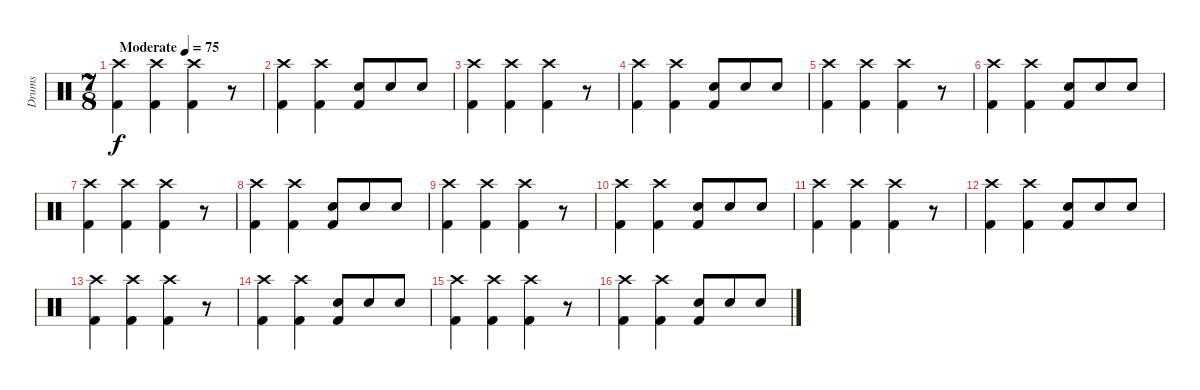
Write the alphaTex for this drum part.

\track ("Drums" "Drums") {instrument percussion}
\staff {score}
\articulation defaults
\ts (7 8)
\tempo (75 "Moderate")
\tempo 195
\tempo (75 "Moderate")
\clef neutral
\ks c
("Crash high (hit)" "Kick (hit) 2").4{dy f} ("Crash high (hit)" "Kick (hit) 2").4 ("Crash high (hit)" "Kick (hit) 2").4 r.8 |
("Crash high (hit)" "Kick (hit) 2").4 ("Crash high (hit)" "Kick (hit) 2").4 ("Electric Snare (hit)" "Kick (hit) 2").8 "Electric Snare (hit)".8 "Electric Snare (hit)".8 |
("Crash high (hit)" "Kick (hit) 2").4 ("Crash high (hit)" "Kick (hit) 2").4 ("Crash high (hit)" "Kick (hit) 2").4 r.8 |
("Crash high (hit)" "Kick (hit) 2").4 ("Crash high (hit)" "Kick (hit) 2").4 ("Electric Snare (hit)" "Kick (hit) 2").8 "Electric Snare (hit)".8 "Electric Snare (hit)".8 |
("Crash high (hit)" "Kick (hit) 2").4 ("Crash high (hit)" "Kick (hit) 2").4 ("Crash high (hit)" "Kick (hit) 2").4 r.8 |
("Crash high (hit)" "Kick (hit) 2").4 ("Crash high (hit)" "Kick (hit) 2").4 ("Electric Snare (hit)" "Kick (hit) 2").8 "Electric Snare (hit)".8 "Electric Snare (hit)".8 |
("Crash high (hit)" "Kick (hit) 2").4 ("Crash high (hit)" "Kick (hit) 2").4 ("Crash high (hit)" "Kick (hit) 2").4 r.8 |
("Crash high (hit)" "Kick (hit) 2").4 ("Crash high (hit)" "Kick (hit) 2").4 ("Electric Snare (hit)" "Kick (hit) 2").8 "Electric Snare (hit)".8 "Electric Snare (hit)".8 |
("Crash high (hit)" "Kick (hit) 2").4 ("Crash high (hit)" "Kick (hit) 2").4 ("Crash high (hit)" "Kick (hit) 2").4 r.8 |
("Crash high (hit)" "Kick (hit) 2").4 ("Crash high (hit)" "Kick (hit) 2").4 ("Electric Snare (hit)" "Kick (hit) 2").8 "Electric Snare (hit)".8 "Electric Snare (hit)".8 |
("Crash high (hit)" "Kick (hit) 2").4 ("Crash high (hit)" "Kick (hit) 2").4 ("Crash high (hit)" "Kick (hit) 2").4 r.8 |
("Crash high (hit)" "Kick (hit) 2").4 ("Crash high (hit)" "Kick (hit) 2").4 ("Electric Snare (hit)" "Kick (hit) 2").8 "Electric Snare (hit)".8 "Electric Snare (hit)".8 |
("Crash high (hit)" "Kick (hit) 2").4 ("Crash high (hit)" "Kick (hit) 2").4 ("Crash high (hit)" "Kick (hit) 2").4 r.8 |
("Crash high (hit)" "Kick (hit) 2").4 ("Crash high (hit)" "Kick (hit) 2").4 ("Electric Snare (hit)" "Kick (hit) 2").8 "Electric Snare (hit)".8 "Electric Snare (hit)".8 |
("Crash high (hit)" "Kick (hit) 2").4 ("Crash high (hit)" "Kick (hit) 2").4 ("Crash high (hit)" "Kick (hit) 2").4 r.8 |
("Crash high (hit)" "Kick (hit) 2").4 ("Crash high (hit)" "Kick (hit) 2").4 ("Electric Snare (hit)" "Kick (hit) 2").8 "Electric Snare (hit)".8 "Electric Snare (hit)".8
